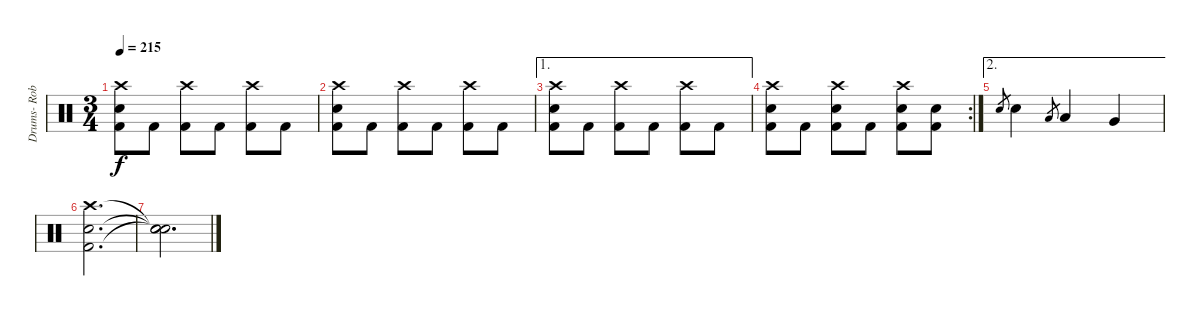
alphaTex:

\track ("Drums- Rob Rolfe" "Drums- Rob") {instrument percussion}
\staff {score}
\articulation defaults
\ts (3 4)
\tempo 215
\clef neutral
\ks c
("Crash high (hit)" "Snare (hit) 2" "Kick (hit) 2").8{dy f} "Kick (hit) 2".8 ("Crash high (hit)" "Kick (hit) 2").8 "Kick (hit) 2".8 ("Crash high (hit)" "Kick (hit) 2").8 "Kick (hit) 2".8 |
("Crash high (hit)" "Snare (hit) 2" "Kick (hit) 2").8 "Kick (hit) 2".8 ("Crash high (hit)" "Kick (hit) 2").8 "Kick (hit) 2".8 ("Crash high (hit)" "Kick (hit) 2").8 "Kick (hit) 2".8 |
\ae 1
("Crash high (hit)" "Snare (hit) 2" "Kick (hit) 2").8 "Kick (hit) 2".8 ("Crash high (hit)" "Kick (hit) 2").8 "Kick (hit) 2".8 ("Crash high (hit)" "Kick (hit) 2").8 "Kick (hit) 2".8 |
\rc 2
("Crash high (hit)" "Snare (hit) 2" "Kick (hit) 2").8 "Kick (hit) 2".8 ("Crash high (hit)" "Snare (hit) 2" "Kick (hit) 2").8 "Kick (hit) 2".8 ("Crash high (hit)" "Snare (hit) 2" "Kick (hit) 2").8 ("Snare (hit) 2" "Kick (hit) 2").8 |
\ae 2 "Snare (hit) 2".8{gr} "Snare (hit) 2".4 "Low Tom (hit)".8{gr} "Low Tom (hit)".4 "Very Low Tom (hit)".4
|
("Crash high (hit)" "Snare (hit) 2" "Kick (hit) 2").2{d} |
("Snare (hit)"{t} "Snare (hit)"{t} "Snare (hit)"{t}).2{d}
